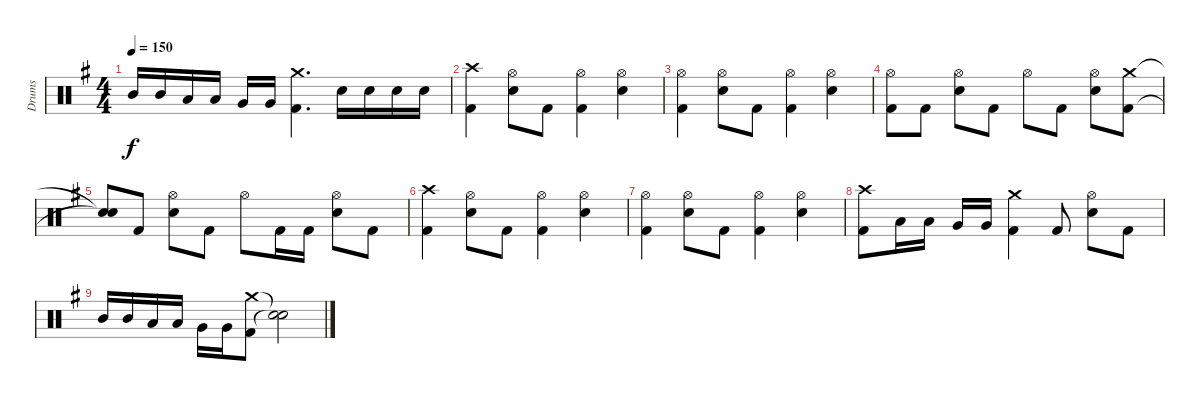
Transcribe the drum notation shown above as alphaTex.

\track ("Drums" "Drums") {instrument percussion}
\staff {score}
\articulation defaults
\ts (4 4)
\tempo 150
\clef neutral
\ks eminor "Mid Tom (hit)".16{dy f} "Mid Tom (hit)".16 "Low Tom (hit)".16 "Low Tom (hit)".16 "Very Low Tom (hit)".16 "Very Low Tom (hit)".16
("Crash medium (hit)" "Kick (hit) 2").4{d} "Electric Snare (hit)".16 "Electric Snare (hit)".16 "Electric Snare (hit)".16 "Electric Snare (hit)".16 |
("Crash high (hit)" "Kick (hit) 2").4 ("Hi-Hat (open)" "Electric Snare (hit)").8 "Kick (hit) 2".8 ("Hi-Hat (open)" "Kick (hit) 2").4 ("Hi-Hat (open)" "Electric Snare (hit)").4 |
("Hi-Hat (open)" "Kick (hit) 2").4 ("Hi-Hat (open)" "Electric Snare (hit)").8 "Kick (hit) 2".8 ("Hi-Hat (open)" "Kick (hit) 2").4 ("Hi-Hat (open)" "Electric Snare (hit)").4 |
("Hi-Hat (open)" "Kick (hit) 2").8 "Kick (hit) 2".8 ("Hi-Hat (open)" "Electric Snare (hit)").8 "Kick (hit) 2".8 "Hi-Hat (open)".8 "Kick (hit) 2".8 ("Hi-Hat (open)" "Electric Snare (hit)").8 ("Crash medium (hit)" "Kick (hit) 2").8 |
("Snare (hit)"{t} "Snare (hit)"{t}).8 "Kick (hit) 2".8 ("Hi-Hat (open)" "Electric Snare (hit)").8 "Kick (hit) 2".8 "Hi-Hat (open)".8 "Kick (hit) 2".16 "Kick (hit) 2".16 ("Hi-Hat (open)" "Electric Snare (hit)").8 "Kick (hit) 2".8 |
("Crash high (hit)" "Kick (hit) 2").4 ("Hi-Hat (open)" "Electric Snare (hit)").8 "Kick (hit) 2".8 ("Hi-Hat (open)" "Kick (hit) 2").4 ("Hi-Hat (open)" "Electric Snare (hit)").4 |
("Hi-Hat (open)" "Kick (hit) 2").4 ("Hi-Hat (open)" "Electric Snare (hit)").8 "Kick (hit) 2".8 ("Hi-Hat (open)" "Kick (hit) 2").4 ("Hi-Hat (open)" "Electric Snare (hit)").4 |
("Crash high (hit)" "Kick (hit) 2").8 "Low Tom (hit)".16 "Low Tom (hit)".16 "Very Low Tom (hit)".16 "Very Low Tom (hit)".16 ("Crash medium (hit)" "Kick (hit) 2").4 "Kick (hit) 2".8 ("Hi-Hat (open)" "Electric Snare (hit)").8 "Kick (hit) 2".8 |
"Mid Tom (hit)".16 "Mid Tom (hit)".16 "Low Tom (hit)".16 "Low Tom (hit)".16 "Very Low Tom (hit)".16 "Very Low Tom (hit)".16 ("Crash medium (hit)" "Kick (hit) 2").8 ("Snare (hit)"{t} "Snare (hit)"{t}).2
